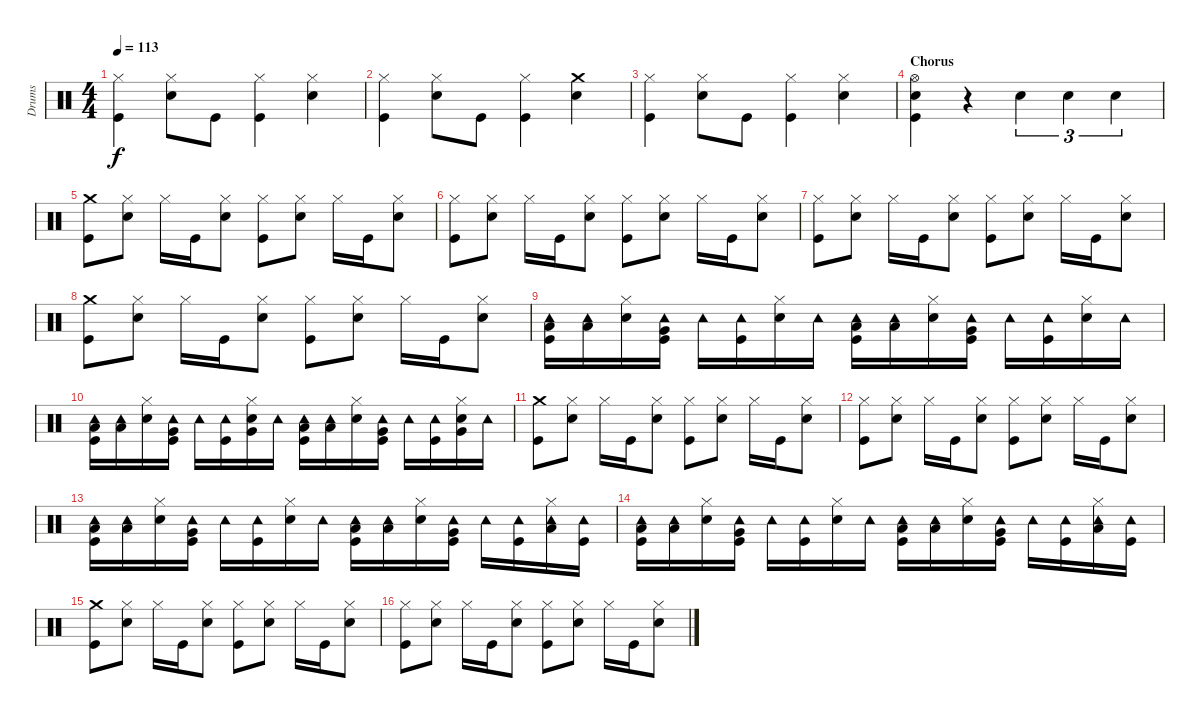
\track ("Drums" "Drums") {instrument percussion}
\staff {score}
\articulation defaults
\ts (4 4)
\tempo 113
\clef neutral
\ks c
("Hi-Hat (closed)" "Kick (hit)").4{dy f} ("Hi-Hat (closed)" "Snare (hit) 2").8 "Kick (hit)".8 ("Hi-Hat (closed)" "Kick (hit)").4 ("Hi-Hat (closed)" "Snare (hit) 2").4 |
("Hi-Hat (closed)" "Kick (hit)").4 ("Hi-Hat (closed)" "Snare (hit) 2").8 "Kick (hit)".8 ("Hi-Hat (closed)" "Kick (hit)").4 ("Crash medium (hit)" "Snare (hit) 2").4 |
("Hi-Hat (closed)" "Kick (hit)").4 ("Hi-Hat (closed)" "Snare (hit) 2").8 "Kick (hit)".8 ("Hi-Hat (closed)" "Kick (hit)").4 ("Hi-Hat (closed)" "Snare (hit) 2").4 |
\section ("" "Chorus")
("Hi-Hat (open)" "Snare (hit) 2" "Kick (hit)").4 r.4 "Snare (hit) 2".4{tu (3 2)} "Snare (hit) 2".4{tu (3 2)} "Snare (hit) 2".4{tu (3 2)} |
("Crash medium (hit)" "Kick (hit)").8 ("Hi-Hat (closed)" "Snare (hit) 2").8 "Hi-Hat (closed)".16 "Kick (hit)".16 ("Hi-Hat (closed)" "Snare (hit) 2").8 ("Hi-Hat (closed)" "Kick (hit)").8 ("Hi-Hat (closed)" "Snare (hit) 2").8 "Hi-Hat (closed)".16 "Kick (hit)".16 ("Hi-Hat (closed)" "Snare (hit) 2").8 |
("Hi-Hat (closed)" "Kick (hit)").8 ("Hi-Hat (closed)" "Snare (hit) 2").8 "Hi-Hat (closed)".16 "Kick (hit)".16 ("Hi-Hat (closed)" "Snare (hit) 2").8 ("Hi-Hat (closed)" "Kick (hit)").8 ("Hi-Hat (closed)" "Snare (hit) 2").8 "Hi-Hat (closed)".16 "Kick (hit)".16 ("Hi-Hat (closed)" "Snare (hit) 2").8 |
("Hi-Hat (closed)" "Kick (hit)").8 ("Hi-Hat (closed)" "Snare (hit) 2").8 "Hi-Hat (closed)".16 "Kick (hit)".16 ("Hi-Hat (closed)" "Snare (hit) 2").8 ("Hi-Hat (closed)" "Kick (hit)").8 ("Hi-Hat (closed)" "Snare (hit) 2").8 "Hi-Hat (closed)".16 "Kick (hit)".16 ("Hi-Hat (closed)" "Snare (hit) 2").8 |
("Crash medium (hit)" "Kick (hit)").8 ("Hi-Hat (closed)" "Snare (hit) 2").8 "Hi-Hat (closed)".16 "Kick (hit)".16 ("Hi-Hat (closed)" "Snare (hit) 2").8 ("Hi-Hat (closed)" "Kick (hit)").8 ("Hi-Hat (closed)" "Snare (hit) 2").8 "Hi-Hat (closed)".16 "Kick (hit)".16 ("Hi-Hat (closed)" "Snare (hit) 2").8 |
("Tambourine (hit)" "Low Tom (hit)" "Kick (hit)").16 ("Tambourine (hit)" "Low Floor Tom (hit)").16 ("Hi-Hat (closed)" "Snare (hit) 2").16 ("Tambourine (hit)" "Very Low Tom (hit)" "Kick (hit)").16 "Tambourine (hit)".16 ("Tambourine (hit)" "Kick (hit)").16 ("Hi-Hat (closed)" "Snare (hit) 2").16 "Tambourine (hit)".16 ("Tambourine (hit)" "Low Tom (hit)" "Kick (hit)").16 ("Tambourine (hit)" "Low Floor Tom (hit)").16 ("Hi-Hat (closed)" "Snare (hit) 2").16 ("Tambourine (hit)" "Very Low Tom (hit)" "Kick (hit)").16 "Tambourine (hit)".16 ("Tambourine (hit)" "Kick (hit)").16 ("Hi-Hat (closed)" "Snare (hit) 2").16 "Tambourine (hit)".16 |
("Tambourine (hit)" "Low Tom (hit)" "Kick (hit)").16 ("Tambourine (hit)" "Low Floor Tom (hit)").16 ("Hi-Hat (closed)" "Snare (hit) 2").16 ("Tambourine (hit)" "Very Low Tom (hit)" "Kick (hit)").16 "Tambourine (hit)".16 ("Tambourine (hit)" "Kick (hit)").16 ("Hi-Hat (closed)" "Snare (hit) 2" "Very Low Tom (hit)").16 "Tambourine (hit)".16 ("Tambourine (hit)" "Low Tom (hit)" "Kick (hit)").16 ("Tambourine (hit)" "Low Floor Tom (hit)").16 ("Hi-Hat (closed)" "Snare (hit) 2").16 ("Tambourine (hit)" "Very Low Tom (hit)" "Kick (hit)").16 "Tambourine (hit)".16 ("Tambourine (hit)" "Kick (hit)").16 ("Hi-Hat (closed)" "Snare (hit) 2" "Very Low Tom (hit)").16 "Tambourine (hit)".16 |
("Crash medium (hit)" "Kick (hit)").8 ("Hi-Hat (closed)" "Snare (hit) 2").8 "Hi-Hat (closed)".16 "Kick (hit)".16 ("Hi-Hat (closed)" "Snare (hit) 2").8 ("Hi-Hat (closed)" "Kick (hit)").8 ("Hi-Hat (closed)" "Snare (hit) 2").8 "Hi-Hat (closed)".16 "Kick (hit)".16 ("Hi-Hat (closed)" "Snare (hit) 2").8 |
("Hi-Hat (closed)" "Kick (hit)").8 ("Hi-Hat (closed)" "Snare (hit) 2").8 "Hi-Hat (closed)".16 "Kick (hit)".16 ("Hi-Hat (closed)" "Snare (hit) 2").8 ("Hi-Hat (closed)" "Kick (hit)").8 ("Hi-Hat (closed)" "Snare (hit) 2").8 "Hi-Hat (closed)".16 "Kick (hit)".16 ("Hi-Hat (closed)" "Snare (hit) 2").8 |
("Tambourine (hit)" "Low Tom (hit)" "Kick (hit)").16 ("Tambourine (hit)" "Low Floor Tom (hit)").16 ("Hi-Hat (closed)" "Snare (hit) 2").16 ("Tambourine (hit)" "Very Low Tom (hit)" "Kick (hit)").16 "Tambourine (hit)".16 ("Tambourine (hit)" "Kick (hit)").16 ("Hi-Hat (closed)" "Snare (hit) 2").16 "Tambourine (hit)".16 ("Tambourine (hit)" "Low Tom (hit)" "Kick (hit)").16 ("Tambourine (hit)" "Low Floor Tom (hit)").16 ("Hi-Hat (closed)" "Snare (hit) 2").16 ("Tambourine (hit)" "Very Low Tom (hit)" "Kick (hit)").16 "Tambourine (hit)".16 ("Tambourine (hit)" "Kick (hit)").16 ("Hi-Hat (closed)" "Tambourine (hit)" "Low Tom (hit)").16 ("Tambourine (hit)" "Kick (hit)").16 |
("Tambourine (hit)" "Low Tom (hit)" "Kick (hit)").16 ("Tambourine (hit)" "Low Floor Tom (hit)").16 ("Hi-Hat (closed)" "Snare (hit) 2").16 ("Tambourine (hit)" "Very Low Tom (hit)" "Kick (hit)").16 "Tambourine (hit)".16 ("Tambourine (hit)" "Kick (hit)").16 ("Hi-Hat (closed)" "Snare (hit) 2").16 "Tambourine (hit)".16 ("Tambourine (hit)" "Low Tom (hit)" "Kick (hit)").16 ("Tambourine (hit)" "Low Floor Tom (hit)").16 ("Hi-Hat (closed)" "Snare (hit) 2").16 ("Tambourine (hit)" "Very Low Tom (hit)" "Kick (hit)").16 "Tambourine (hit)".16 ("Tambourine (hit)" "Kick (hit)").16 ("Hi-Hat (closed)" "Tambourine (hit)" "Low Tom (hit)").16 ("Tambourine (hit)" "Kick (hit)").16 |
("Crash medium (hit)" "Kick (hit)").8 ("Hi-Hat (closed)" "Snare (hit) 2").8 "Hi-Hat (closed)".16 "Kick (hit)".16 ("Hi-Hat (closed)" "Snare (hit) 2").8 ("Hi-Hat (closed)" "Kick (hit)").8 ("Hi-Hat (closed)" "Snare (hit) 2").8 "Hi-Hat (closed)".16 "Kick (hit)".16 ("Hi-Hat (closed)" "Snare (hit) 2").8 |
("Hi-Hat (closed)" "Kick (hit)").8 ("Hi-Hat (closed)" "Snare (hit) 2").8 "Hi-Hat (closed)".16 "Kick (hit)".16 ("Hi-Hat (closed)" "Snare (hit) 2").8 ("Hi-Hat (closed)" "Kick (hit)").8 ("Hi-Hat (closed)" "Snare (hit) 2").8 "Hi-Hat (closed)".16 "Kick (hit)".16 ("Hi-Hat (closed)" "Snare (hit) 2").8
